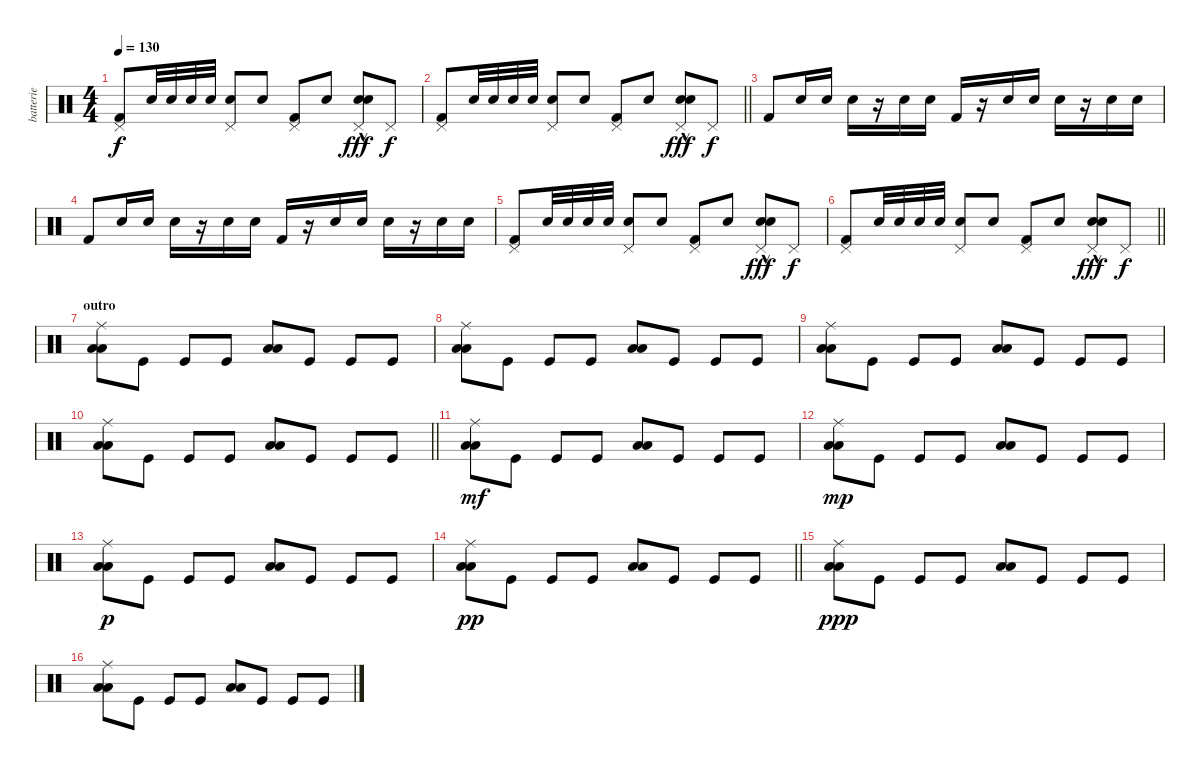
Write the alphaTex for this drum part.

\track ("batterie" "batterie") {instrument percussion}
\staff {score}
\articulation defaults
\ts (4 4)
\tempo 130
\clef neutral
\ks c
("Pedal Hi-Hat (hit)" "Kick (hit) 2").8{dy f} "Snare (hit) 2".32 "Snare (hit) 2".32 "Snare (hit) 2".32 "Snare (hit) 2".32 ("Pedal Hi-Hat (hit)" "Snare (hit) 2").8 "Snare (hit) 2".8 ("Pedal Hi-Hat (hit)" "Kick (hit) 2").8 "Snare (hit) 2".8 ("Pedal Hi-Hat (hit)" "Snare (hit) 2"{hac} "Snare (hit) 2"{hac}).8{dy fff} "Pedal Hi-Hat (hit)".8{dy f} |
\barLineRight lightlight
("Pedal Hi-Hat (hit)" "Kick (hit) 2").8 "Snare (hit) 2".32 "Snare (hit) 2".32 "Snare (hit) 2".32 "Snare (hit) 2".32 ("Pedal Hi-Hat (hit)" "Snare (hit) 2").8 "Snare (hit) 2".8 ("Pedal Hi-Hat (hit)" "Kick (hit) 2").8 "Snare (hit) 2".8 ("Pedal Hi-Hat (hit)" "Snare (hit) 2"{hac} "Snare (hit) 2"{hac}).8{dy fff} "Pedal Hi-Hat (hit)".8{dy f} |
"Kick (hit) 2".8 "Snare (hit) 2".16 "Snare (hit) 2".16 "Snare (hit) 2".16 r.16 "Snare (hit) 2".16 "Snare (hit) 2".16 "Kick (hit) 2".16 r.16 "Snare (hit) 2".16 "Snare (hit) 2".16 "Snare (hit) 2".16 r.16 "Snare (hit) 2".16 "Snare (hit) 2".16 |
"Kick (hit) 2".8 "Snare (hit) 2".16 "Snare (hit) 2".16 "Snare (hit) 2".16 r.16 "Snare (hit) 2".16 "Snare (hit) 2".16 "Kick (hit) 2".16 r.16 "Snare (hit) 2".16 "Snare (hit) 2".16 "Snare (hit) 2".16 r.16 "Snare (hit) 2".16 "Snare (hit) 2".16 |
("Pedal Hi-Hat (hit)" "Kick (hit) 2").8 "Snare (hit) 2".32 "Snare (hit) 2".32 "Snare (hit) 2".32 "Snare (hit) 2".32 ("Pedal Hi-Hat (hit)" "Snare (hit) 2").8 "Snare (hit) 2".8 ("Pedal Hi-Hat (hit)" "Kick (hit) 2").8 "Snare (hit) 2".8 ("Pedal Hi-Hat (hit)" "Snare (hit) 2"{hac} "Snare (hit) 2"{hac}).8{dy fff} "Pedal Hi-Hat (hit)".8{dy f} |
\barLineRight lightlight
("Pedal Hi-Hat (hit)" "Kick (hit) 2").8 "Snare (hit) 2".32 "Snare (hit) 2".32 "Snare (hit) 2".32 "Snare (hit) 2".32 ("Pedal Hi-Hat (hit)" "Snare (hit) 2").8 "Snare (hit) 2".8 ("Pedal Hi-Hat (hit)" "Kick (hit) 2").8 "Snare (hit) 2".8 ("Pedal Hi-Hat (hit)" "Snare (hit) 2"{hac} "Snare (hit) 2"{hac}).8{dy fff} "Pedal Hi-Hat (hit)".8{dy f} |
\section ("" "outro")
("Ride (middle)" "Low Floor Tom (hit)" "Low Floor Tom (hit)").8{bd 240} "Kick (hit)".8 "Kick (hit)".8 "Kick (hit)".8 ("Low Floor Tom (hit)" "Low Floor Tom (hit)").8 "Kick (hit)".8 "Kick (hit)".8 "Kick (hit)".8 |
("Ride (middle)" "Low Floor Tom (hit)" "Low Floor Tom (hit)").8{bd 240} "Kick (hit)".8 "Kick (hit)".8 "Kick (hit)".8 ("Low Floor Tom (hit)" "Low Floor Tom (hit)").8 "Kick (hit)".8 "Kick (hit)".8 "Kick (hit)".8 |
("Ride (middle)" "Low Floor Tom (hit)" "Low Floor Tom (hit)").8{bd 240} "Kick (hit)".8 "Kick (hit)".8 "Kick (hit)".8 ("Low Floor Tom (hit)" "Low Floor Tom (hit)").8 "Kick (hit)".8 "Kick (hit)".8 "Kick (hit)".8 |
\barLineRight lightlight
("Ride (middle)" "Low Floor Tom (hit)" "Low Floor Tom (hit)").8{bd 240} "Kick (hit)".8 "Kick (hit)".8 "Kick (hit)".8 ("Low Floor Tom (hit)" "Low Floor Tom (hit)").8 "Kick (hit)".8 "Kick (hit)".8 "Kick (hit)".8 |
("Ride (middle)" "Low Floor Tom (hit)" "Low Floor Tom (hit)").8{bd 240 dy mf} "Kick (hit)".8 "Kick (hit)".8 "Kick (hit)".8 ("Low Floor Tom (hit)" "Low Floor Tom (hit)").8 "Kick (hit)".8 "Kick (hit)".8 "Kick (hit)".8 |
("Ride (middle)" "Low Floor Tom (hit)" "Low Floor Tom (hit)").8{bd 240 dy mp} "Kick (hit)".8 "Kick (hit)".8 "Kick (hit)".8 ("Low Floor Tom (hit)" "Low Floor Tom (hit)").8 "Kick (hit)".8 "Kick (hit)".8 "Kick (hit)".8 |
("Ride (middle)" "Low Floor Tom (hit)" "Low Floor Tom (hit)").8{bd 240 dy p} "Kick (hit)".8 "Kick (hit)".8 "Kick (hit)".8 ("Low Floor Tom (hit)" "Low Floor Tom (hit)").8 "Kick (hit)".8 "Kick (hit)".8 "Kick (hit)".8 |
\barLineRight lightlight
("Ride (middle)" "Low Floor Tom (hit)" "Low Floor Tom (hit)").8{bd 240 dy pp} "Kick (hit)".8 "Kick (hit)".8 "Kick (hit)".8 ("Low Floor Tom (hit)" "Low Floor Tom (hit)").8 "Kick (hit)".8 "Kick (hit)".8 "Kick (hit)".8 |
("Ride (middle)" "Low Floor Tom (hit)" "Low Floor Tom (hit)").8{bd 240 dy ppp} "Kick (hit)".8 "Kick (hit)".8 "Kick (hit)".8 ("Low Floor Tom (hit)" "Low Floor Tom (hit)").8 "Kick (hit)".8 "Kick (hit)".8 "Kick (hit)".8 |
("Ride (middle)" "Low Floor Tom (hit)" "Low Floor Tom (hit)").8{bd 240} "Kick (hit)".8 "Kick (hit)".8 "Kick (hit)".8 ("Low Floor Tom (hit)" "Low Floor Tom (hit)").8 "Kick (hit)".8 "Kick (hit)".8 "Kick (hit)".8
